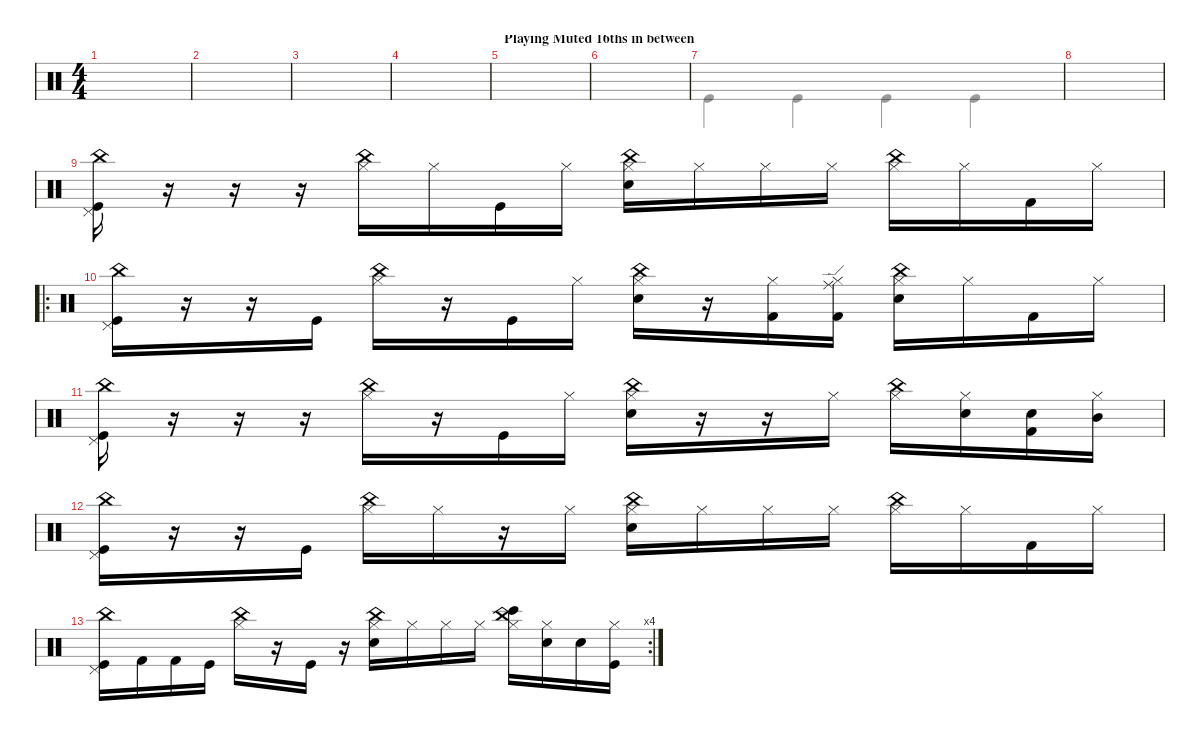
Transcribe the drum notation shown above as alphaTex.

\defaultSystemsLayout 4
\hideDynamics
\bracketExtendMode nobrackets
\singleTrackTrackNamePolicy hidden
\multiTrackTrackNamePolicy hidden
\track ("Drumkit" "drm.") {instrument percussion}
\staff {score}
\articulation defaults
\voice
\ts (4 4)
\tempo (70 hide)
\clef neutral
\ks aminor
|
|
|
|
\section ("" "Playing Muted 16ths in between")
|
|
|
|
("China (hit)" "Pedal Hi-Hat (hit)" "Kick (hit)").16 r.16 r.16 r.16 ("Hi-Hat (closed)" "China (hit)").16 "Hi-Hat (closed)".16 "Kick (hit)".16 "Hi-Hat (closed)".16 ("Hi-Hat (closed)" "Snare (hit) 2" "China (hit)").16 "Hi-Hat (closed)".16 "Hi-Hat (closed)".16 "Hi-Hat (closed)".16 ("Hi-Hat (closed)" "China (hit)").16 "Hi-Hat (closed)".16 "Kick (hit) 2".16 "Hi-Hat (closed)".16 |
\ro
("China (hit)" "Pedal Hi-Hat (hit)" "Kick (hit)").16 r.16 r.16 "Kick (hit)".16 ("Hi-Hat (closed)" "China (hit)").16 r.16 "Kick (hit)".16 "Hi-Hat (closed)".16 ("Hi-Hat (closed)" "Snare (hit) 2" "China (hit)").16 r.16 ("Hi-Hat (closed)" "Kick (hit) 2").16 ("Hi-Hat (closed)" "Ride (edge)" "Kick (hit) 2").16 ("Hi-Hat (closed)" "China (hit)" "Snare (hit) 2").16 "Hi-Hat (closed)".16 "Kick (hit) 2".16 "Hi-Hat (closed)".16 |
("China (hit)" "Pedal Hi-Hat (hit)" "Kick (hit)").16 r.16 r.16 r.16 ("Hi-Hat (closed)" "China (hit)").16 r.16 "Kick (hit)".16 "Hi-Hat (closed)".16 ("Hi-Hat (closed)" "Snare (hit) 2" "China (hit)").16 r.16 r.16 "Hi-Hat (closed)".16 ("Hi-Hat (closed)" "China (hit)").16 ("Hi-Hat (closed)" "Snare (hit) 2").16 ("Kick (hit) 2" "Snare (hit) 2").16 ("Hi-Hat (closed)" "Mid Tom (hit)").16 |
("China (hit)" "Pedal Hi-Hat (hit)" "Kick (hit)").16 r.16 r.16 "Kick (hit)".16 ("Hi-Hat (closed)" "China (hit)").16 "Hi-Hat (closed)".16 r.16 "Hi-Hat (closed)".16 ("Hi-Hat (closed)" "Snare (hit) 2" "China (hit)").16 "Hi-Hat (closed)".16 "Hi-Hat (closed)".16 "Hi-Hat (closed)".16 ("Hi-Hat (closed)" "China (hit)").16 "Hi-Hat (closed)".16 "Kick (hit) 2".16 "Hi-Hat (closed)".16 |
\rc 4
("China (hit)" "Pedal Hi-Hat (hit)" "Kick (hit)").16 "Kick (hit) 2".16 "Kick (hit) 2".16 "Kick (hit)".16 ("Hi-Hat (closed)" "China (hit)").16 r.16 "Kick (hit)".16 r.16 ("Hi-Hat (closed)" "Snare (hit) 2" "China (hit)").16 "Hi-Hat (closed)".16 "Hi-Hat (closed)".16 "Hi-Hat (closed)".16 ("Hi-Hat (closed)" "Bongo High (hit)" "China (hit)").16 ("Hi-Hat (closed)" "Snare (hit) 2").16 "Snare (hit) 2".16 ("Hi-Hat (closed)" "Kick (hit)").16
\voice
\clef neutral
\ottava regular
\simile none
\ks aminor
|
|
|
|
|
|
"Kick (hit)".4 "Kick (hit)".4 "Kick (hit)".4 "Kick (hit)".4 |
|
|
|
|
|
